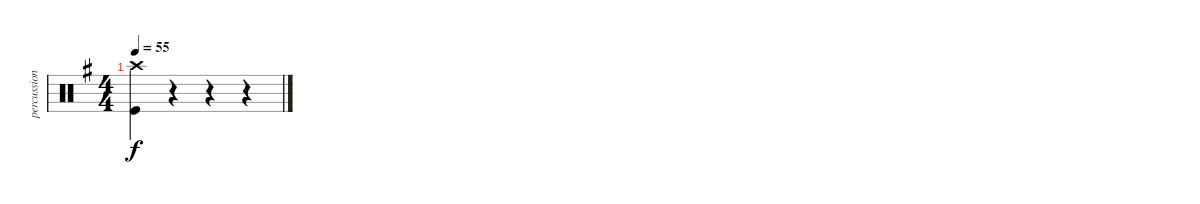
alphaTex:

\track ("percussion" "percussion") {instrument percussion}
\staff {score}
\articulation defaults
\ts (4 4)
\tempo 55
\clef neutral
\ks g
("Crash high (hit)" "Kick (hit)").4{dy f} r.4 r.4 r.4
